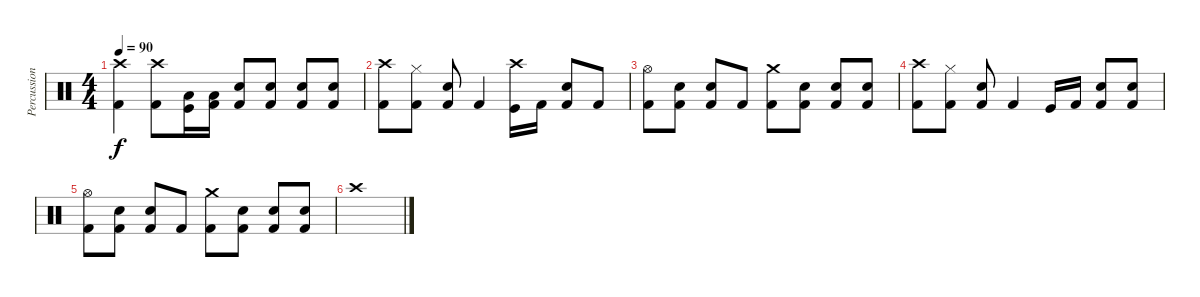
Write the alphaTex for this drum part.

\track ("Percussion" "Percussion") {instrument percussion}
\staff {score}
\articulation defaults
\ts (4 4)
\tempo 90
\clef neutral
\ks c
("Crash high (hit)" "Kick (hit) 2").4{dy f} ("Crash high (hit)" "Kick (hit) 2").8 ("Low Tom (hit)" "Kick (hit)").16 ("Low Tom (hit)" "Kick (hit) 2").16 ("Snare (hit) 2" "Kick (hit) 2").8 ("Electric Snare (hit)" "Kick (hit) 2").8 ("Electric Snare (hit)" "Kick (hit) 2").8 ("Electric Snare (hit)" "Kick (hit) 2").8 |
("Crash high (hit)" "Kick (hit) 2").8 ("Hi-Hat (closed)" "Kick (hit) 2").8 ("Snare (hit) 2" "Kick (hit) 2").8 "Kick (hit) 2".4 ("Crash high (hit)" "Kick (hit)").16 "Kick (hit) 2".16 ("Snare (hit) 2" "Kick (hit) 2").8 "Kick (hit) 2".8 |
("Hi-Hat (open)" "Kick (hit) 2").8 ("Snare (hit) 2" "Kick (hit) 2").8 ("Snare (hit) 2" "Kick (hit) 2").8 "Kick (hit) 2".8 ("Crash medium (hit)" "Kick (hit) 2").8 ("Snare (hit) 2" "Kick (hit) 2").8 ("Snare (hit) 2" "Kick (hit) 2").8 ("Snare (hit) 2" "Kick (hit) 2").8 |
("Crash high (hit)" "Kick (hit) 2").8 ("Hi-Hat (closed)" "Kick (hit) 2").8 ("Snare (hit) 2" "Kick (hit) 2").8 "Kick (hit) 2".4 "Kick (hit)".16 "Kick (hit) 2".16 ("Snare (hit) 2" "Kick (hit) 2").8 ("Snare (hit) 2" "Kick (hit) 2").8 |
("Hi-Hat (open)" "Kick (hit) 2").8 ("Snare (hit) 2" "Kick (hit) 2").8 ("Snare (hit) 2" "Kick (hit) 2").8 "Kick (hit) 2".8 ("Crash medium (hit)" "Kick (hit) 2").8 ("Snare (hit) 2" "Kick (hit) 2").8 ("Snare (hit) 2" "Kick (hit) 2").8 ("Snare (hit) 2" "Kick (hit) 2").8 |
"Crash high (hit)".1
